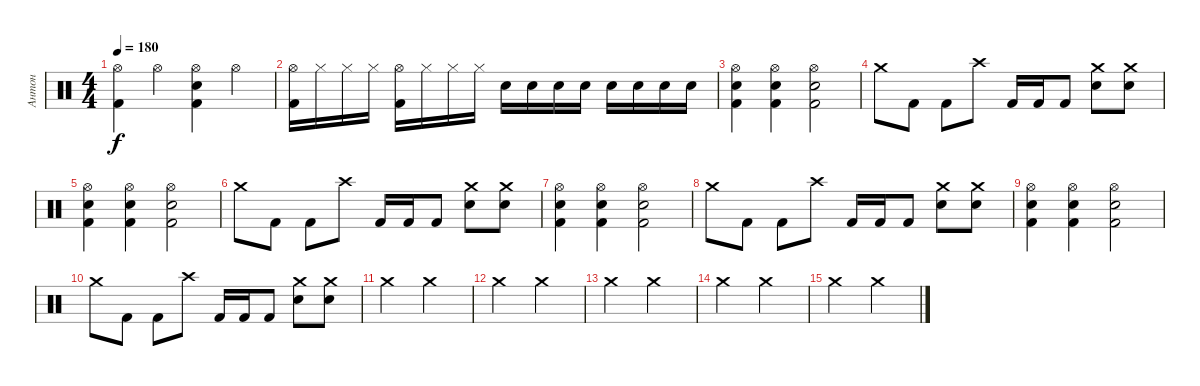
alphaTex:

\track ("Антон" "Антон") {instrument percussion}
\staff {score}
\articulation defaults
\ts (4 4)
\tempo 180
\clef neutral
\ks c
("Hi-Hat (open)" "Kick (hit) 2").4{dy f} "Hi-Hat (open)".4 ("Hi-Hat (open)" "Electric Snare (hit)" "Kick (hit) 2").4 "Hi-Hat (open)".4 |
("Hi-Hat (open)" "Kick (hit) 2").16 "Hi-Hat (closed)".16 "Hi-Hat (closed)".16 "Hi-Hat (closed)".16 ("Hi-Hat (open)" "Kick (hit) 2").16 "Hi-Hat (closed)".16 "Hi-Hat (closed)".16 "Hi-Hat (closed)".16 "Electric Snare (hit)".16 "Electric Snare (hit)".16 "Electric Snare (hit)".16 "Electric Snare (hit)".16 "Electric Snare (hit)".16 "Electric Snare (hit)".16 "Electric Snare (hit)".16 "Electric Snare (hit)".16 |
("Hi-Hat (open)" "Electric Snare (hit)" "Kick (hit) 2").4 ("Hi-Hat (open)" "Electric Snare (hit)" "Kick (hit) 2").4 ("Hi-Hat (open)" "Electric Snare (hit)" "Kick (hit) 2").2 |
"Crash medium (hit)".8 "Kick (hit) 2".8 "Kick (hit) 2".8 "Crash high (hit)".8 "Kick (hit) 2".16 "Kick (hit) 2".16 "Kick (hit) 2".8 ("Crash medium (hit)" "Electric Snare (hit)").8 ("Crash medium (hit)" "Electric Snare (hit)").8 |
("Hi-Hat (open)" "Electric Snare (hit)" "Kick (hit) 2").4 ("Hi-Hat (open)" "Electric Snare (hit)" "Kick (hit) 2").4 ("Hi-Hat (open)" "Electric Snare (hit)" "Kick (hit) 2").2 |
"Crash medium (hit)".8 "Kick (hit) 2".8 "Kick (hit) 2".8 "Crash high (hit)".8 "Kick (hit) 2".16 "Kick (hit) 2".16 "Kick (hit) 2".8 ("Crash medium (hit)" "Electric Snare (hit)").8 ("Crash medium (hit)" "Electric Snare (hit)").8 |
("Hi-Hat (open)" "Electric Snare (hit)" "Kick (hit) 2").4 ("Hi-Hat (open)" "Electric Snare (hit)" "Kick (hit) 2").4 ("Hi-Hat (open)" "Electric Snare (hit)" "Kick (hit) 2").2 |
"Crash medium (hit)".8 "Kick (hit) 2".8 "Kick (hit) 2".8 "Crash high (hit)".8 "Kick (hit) 2".16 "Kick (hit) 2".16 "Kick (hit) 2".8 ("Crash medium (hit)" "Electric Snare (hit)").8 ("Crash medium (hit)" "Electric Snare (hit)").8 |
("Hi-Hat (open)" "Electric Snare (hit)" "Kick (hit) 2").4 ("Hi-Hat (open)" "Electric Snare (hit)" "Kick (hit) 2").4 ("Hi-Hat (open)" "Electric Snare (hit)" "Kick (hit) 2").2 |
"Crash medium (hit)".8 "Kick (hit) 2".8 "Kick (hit) 2".8 "Crash high (hit)".8 "Kick (hit) 2".16 "Kick (hit) 2".16 "Kick (hit) 2".8 ("Crash medium (hit)" "Electric Snare (hit)").8 ("Crash medium (hit)" "Electric Snare (hit)").8 |
"Crash medium (hit)".2 "Crash medium (hit)".2 |
"Crash medium (hit)".2 "Crash medium (hit)".2 |
"Crash medium (hit)".2 "Crash medium (hit)".2 |
"Crash medium (hit)".2 "Crash medium (hit)".2 |
"Crash medium (hit)".2 "Crash medium (hit)".2
